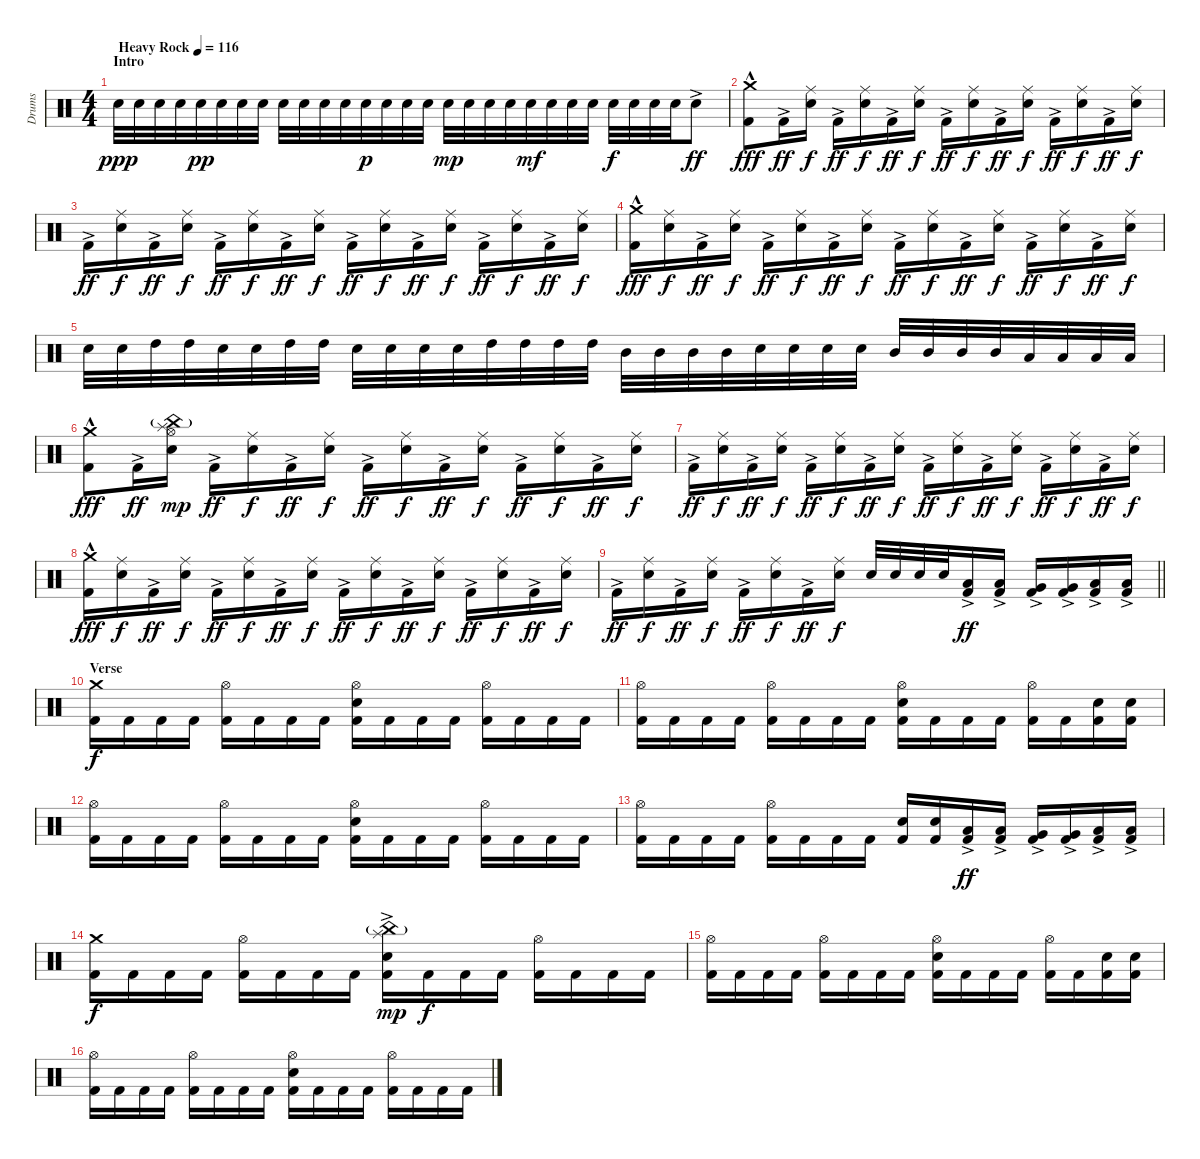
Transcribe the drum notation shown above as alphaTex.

\track ("Drums" "Drums") {instrument percussion}
\staff {score}
\articulation defaults
\ts (4 4)
\section ("" "Intro")
\tempo (116 "Heavy Rock")
\clef neutral
\ks c "Electric Snare (hit)".32{dy ppp} "Electric Snare (hit)".32 "Electric Snare (hit)".32 "Electric Snare (hit)".32 "Electric Snare (hit)".32{dy pp} "Electric Snare (hit)".32 "Electric Snare (hit)".32 "Electric Snare (hit)".32 "Electric Snare (hit)".32 "Electric Snare (hit)".32 "Electric Snare (hit)".32 "Electric Snare (hit)".32 "Electric Snare (hit)".32{dy p} "Electric Snare (hit)".32 "Electric Snare (hit)".32 "Electric Snare (hit)".32 "Electric Snare (hit)".32{dy mp} "Electric Snare (hit)".32 "Electric Snare (hit)".32 "Electric Snare (hit)".32 "Electric Snare (hit)".32{dy mf} "Electric Snare (hit)".32 "Electric Snare (hit)".32 "Electric Snare (hit)".32 "Electric Snare (hit)".32{dy f} "Electric Snare (hit)".32 "Electric Snare (hit)".32 "Electric Snare (hit)".32 "Electric Snare (hit)"{ac}.8{dy ff}
|
("Crash medium (hit)" "Kick (hit) 2"{hac}).8{dy fff} "Kick (hit) 2"{ac}.16{dy ff} ("Electric Snare (hit)" "Ride (middle)").16{dy f} "Kick (hit) 2"{ac}.16{dy ff} ("Electric Snare (hit)" "Ride (middle)").16{dy f} "Kick (hit) 2"{ac}.16{dy ff} ("Electric Snare (hit)" "Ride (middle)").16{dy f} "Kick (hit) 2"{ac}.16{dy ff} ("Electric Snare (hit)" "Ride (middle)").16{dy f} "Kick (hit) 2"{ac}.16{dy ff} ("Electric Snare (hit)" "Ride (middle)").16{dy f} "Kick (hit) 2"{ac}.16{dy ff} ("Electric Snare (hit)" "Ride (middle)").16{dy f} "Kick (hit) 2"{ac}.16{dy ff} ("Electric Snare (hit)" "Ride (middle)").16{dy f} |
"Kick (hit) 2"{ac}.16{dy ff} ("Electric Snare (hit)" "Ride (middle)").16{dy f} "Kick (hit) 2"{ac}.16{dy ff} ("Electric Snare (hit)" "Ride (middle)").16{dy f} "Kick (hit) 2"{ac}.16{dy ff} ("Electric Snare (hit)" "Ride (middle)").16{dy f} "Kick (hit) 2"{ac}.16{dy ff} ("Electric Snare (hit)" "Ride (middle)").16{dy f} "Kick (hit) 2"{ac}.16{dy ff} ("Electric Snare (hit)" "Ride (middle)").16{dy f} "Kick (hit) 2"{ac}.16{dy ff} ("Electric Snare (hit)" "Ride (middle)").16{dy f} "Kick (hit) 2"{ac}.16{dy ff} ("Electric Snare (hit)" "Ride (middle)").16{dy f} "Kick (hit) 2"{ac}.16{dy ff} ("Electric Snare (hit)" "Ride (middle)").16{dy f} |
("Crash medium (hit)" "Kick (hit) 2"{hac}).16{dy fff} ("Electric Snare (hit)" "Ride (middle)").16{dy f} "Kick (hit) 2"{ac}.16{dy ff} ("Electric Snare (hit)" "Ride (middle)").16{dy f} "Kick (hit) 2"{ac}.16{dy ff} ("Electric Snare (hit)" "Ride (middle)").16{dy f} "Kick (hit) 2"{ac}.16{dy ff} ("Electric Snare (hit)" "Ride (middle)").16{dy f} "Kick (hit) 2"{ac}.16{dy ff} ("Electric Snare (hit)" "Ride (middle)").16{dy f} "Kick (hit) 2"{ac}.16{dy ff} ("Electric Snare (hit)" "Ride (middle)").16{dy f} "Kick (hit) 2"{ac}.16{dy ff} ("Electric Snare (hit)" "Ride (middle)").16{dy f} "Kick (hit) 2"{ac}.16{dy ff} ("Electric Snare (hit)" "Ride (middle)").16{dy f} |
"Electric Snare (hit)".32 "Electric Snare (hit)".32 "High Tom (hit)".32 "High Tom (hit)".32 "Electric Snare (hit)".32 "Electric Snare (hit)".32 "High Tom (hit)".32 "High Tom (hit)".32 "Electric Snare (hit)".32 "Electric Snare (hit)".32 "Electric Snare (hit)".32 "Electric Snare (hit)".32 "High Tom (hit)".32 "High Tom (hit)".32 "High Tom (hit)".32 "High Tom (hit)".32 "Mid Tom (hit)".32 "Mid Tom (hit)".32 "Mid Tom (hit)".32 "Mid Tom (hit)".32 "Electric Snare (hit)".32 "Electric Snare (hit)".32 "Electric Snare (hit)".32 "Electric Snare (hit)".32 "Mid Tom (hit)".32 "Mid Tom (hit)".32 "Mid Tom (hit)".32 "Mid Tom (hit)".32 "Low Tom (hit)".32 "Low Tom (hit)".32 "Low Tom (hit)".32 "Low Tom (hit)".32 |
("Crash medium (hit)" "Kick (hit) 2"{hac}).8{dy fff} "Kick (hit) 2"{ac}.16{dy ff} ("China (hit)"{g} "Splash (hit)" "Electric Snare (hit)" "Hi-Hat (open)").16{dy mp} "Kick (hit) 2"{ac}.16{dy ff} ("Electric Snare (hit)" "Ride (middle)").16{dy f} "Kick (hit) 2"{ac}.16{dy ff} ("Electric Snare (hit)" "Ride (middle)").16{dy f} "Kick (hit) 2"{ac}.16{dy ff} ("Electric Snare (hit)" "Ride (middle)").16{dy f} "Kick (hit) 2"{ac}.16{dy ff} ("Electric Snare (hit)" "Ride (middle)").16{dy f} "Kick (hit) 2"{ac}.16{dy ff} ("Electric Snare (hit)" "Ride (middle)").16{dy f} "Kick (hit) 2"{ac}.16{dy ff} ("Electric Snare (hit)" "Ride (middle)").16{dy f} |
"Kick (hit) 2"{ac}.16{dy ff} ("Electric Snare (hit)" "Ride (middle)").16{dy f} "Kick (hit) 2"{ac}.16{dy ff} ("Electric Snare (hit)" "Ride (middle)").16{dy f} "Kick (hit) 2"{ac}.16{dy ff} ("Electric Snare (hit)" "Ride (middle)").16{dy f} "Kick (hit) 2"{ac}.16{dy ff} ("Electric Snare (hit)" "Ride (middle)").16{dy f} "Kick (hit) 2"{ac}.16{dy ff} ("Electric Snare (hit)" "Ride (middle)").16{dy f} "Kick (hit) 2"{ac}.16{dy ff} ("Electric Snare (hit)" "Ride (middle)").16{dy f} "Kick (hit) 2"{ac}.16{dy ff} ("Electric Snare (hit)" "Ride (middle)").16{dy f} "Kick (hit) 2"{ac}.16{dy ff} ("Electric Snare (hit)" "Ride (middle)").16{dy f} |
("Crash medium (hit)" "Kick (hit) 2"{hac}).16{dy fff} ("Electric Snare (hit)" "Ride (middle)").16{dy f} "Kick (hit) 2"{ac}.16{dy ff} ("Electric Snare (hit)" "Ride (middle)").16{dy f} "Kick (hit) 2"{ac}.16{dy ff} ("Electric Snare (hit)" "Ride (middle)").16{dy f} "Kick (hit) 2"{ac}.16{dy ff} ("Electric Snare (hit)" "Ride (middle)").16{dy f} "Kick (hit) 2"{ac}.16{dy ff} ("Electric Snare (hit)" "Ride (middle)").16{dy f} "Kick (hit) 2"{ac}.16{dy ff} ("Electric Snare (hit)" "Ride (middle)").16{dy f} "Kick (hit) 2"{ac}.16{dy ff} ("Electric Snare (hit)" "Ride (middle)").16{dy f} "Kick (hit) 2"{ac}.16{dy ff} ("Electric Snare (hit)" "Ride (middle)").16{dy f} |
\barLineRight lightlight "Kick (hit) 2"{ac}.16{dy ff}
("Electric Snare (hit)" "Ride (middle)").16{dy f} "Kick (hit) 2"{ac}.16{dy ff} ("Electric Snare (hit)" "Ride (middle)").16{dy f} "Kick (hit) 2"{ac}.16{dy ff} ("Electric Snare (hit)" "Ride (middle)").16{dy f} "Kick (hit) 2"{ac}.16{dy ff} ("Electric Snare (hit)" "Ride (middle)").16{dy f} "Electric Snare (hit)".32 "Electric Snare (hit)".32 "Electric Snare (hit)".32 "Electric Snare (hit)".32 ("Low Tom (hit)"{ac} "Kick (hit) 2").16{dy ff} ("Low Tom (hit)"{ac} "Kick (hit) 2").16 ("Very Low Tom (hit)"{ac} "Kick (hit) 2").16 ("Very Low Tom (hit)"{ac} "Kick (hit) 2").16 ("Low Floor Tom (hit)"{ac} "Kick (hit) 2").16 ("Low Floor Tom (hit)"{ac} "Kick (hit) 2").16 |
\section ("" "Verse")
("Crash medium (hit)" "Kick (hit) 2").16{dy f} "Kick (hit) 2".16 "Kick (hit) 2".16 "Kick (hit) 2".16 ("Hi-Hat (open)" "Kick (hit) 2").16 "Kick (hit) 2".16 "Kick (hit) 2".16 "Kick (hit) 2".16 ("Electric Snare (hit)" "Hi-Hat (open)" "Kick (hit) 2").16 "Kick (hit) 2".16 "Kick (hit) 2".16 "Kick (hit) 2".16 ("Hi-Hat (open)" "Kick (hit) 2").16 "Kick (hit) 2".16 "Kick (hit) 2".16 "Kick (hit) 2".16 |
("Hi-Hat (open)" "Kick (hit) 2").16 "Kick (hit) 2".16 "Kick (hit) 2".16 "Kick (hit) 2".16 ("Hi-Hat (open)" "Kick (hit) 2").16 "Kick (hit) 2".16 "Kick (hit) 2".16 "Kick (hit) 2".16 ("Electric Snare (hit)" "Hi-Hat (open)" "Kick (hit) 2").16 "Kick (hit) 2".16 "Kick (hit) 2".16 "Kick (hit) 2".16 ("Hi-Hat (open)" "Kick (hit) 2").16 "Kick (hit) 2".16 ("Electric Snare (hit)" "Kick (hit) 2").16 ("Electric Snare (hit)" "Kick (hit) 2").16 |
("Hi-Hat (open)" "Kick (hit) 2").16 "Kick (hit) 2".16 "Kick (hit) 2".16 "Kick (hit) 2".16 ("Hi-Hat (open)" "Kick (hit) 2").16 "Kick (hit) 2".16 "Kick (hit) 2".16 "Kick (hit) 2".16 ("Electric Snare (hit)" "Hi-Hat (open)" "Kick (hit) 2").16 "Kick (hit) 2".16 "Kick (hit) 2".16 "Kick (hit) 2".16 ("Hi-Hat (open)" "Kick (hit) 2").16 "Kick (hit) 2".16 "Kick (hit) 2".16 "Kick (hit) 2".16 |
("Hi-Hat (open)" "Kick (hit) 2").16 "Kick (hit) 2".16 "Kick (hit) 2".16 "Kick (hit) 2".16 ("Hi-Hat (open)" "Kick (hit) 2").16 "Kick (hit) 2".16 "Kick (hit) 2".16 "Kick (hit) 2".16 ("Electric Snare (hit)" "Kick (hit) 2").16 ("Electric Snare (hit)" "Kick (hit) 2").16 ("Low Tom (hit)"{ac} "Kick (hit) 2").16{dy ff} ("Low Tom (hit)"{ac} "Kick (hit) 2").16 ("Very Low Tom (hit)"{ac} "Kick (hit) 2").16 ("Very Low Tom (hit)"{ac} "Kick (hit) 2").16 ("Low Floor Tom (hit)"{ac} "Kick (hit) 2").16 ("Low Floor Tom (hit)"{ac} "Kick (hit) 2").16 |
("Crash medium (hit)" "Kick (hit) 2").16{dy f} "Kick (hit) 2".16 "Kick (hit) 2".16 "Kick (hit) 2".16 ("Hi-Hat (open)" "Kick (hit) 2").16 "Kick (hit) 2".16 "Kick (hit) 2".16 "Kick (hit) 2".16 ("Splash (hit)"{ac} "China (hit)"{g} "Electric Snare (hit)" "Kick (hit) 2").16{dy mp} "Kick (hit) 2".16{dy f} "Kick (hit) 2".16 "Kick (hit) 2".16 ("Hi-Hat (open)" "Kick (hit) 2").16 "Kick (hit) 2".16 "Kick (hit) 2".16 "Kick (hit) 2".16 |
("Hi-Hat (open)" "Kick (hit) 2").16 "Kick (hit) 2".16 "Kick (hit) 2".16 "Kick (hit) 2".16 ("Hi-Hat (open)" "Kick (hit) 2").16 "Kick (hit) 2".16 "Kick (hit) 2".16 "Kick (hit) 2".16 ("Electric Snare (hit)" "Hi-Hat (open)" "Kick (hit) 2").16 "Kick (hit) 2".16 "Kick (hit) 2".16 "Kick (hit) 2".16 ("Hi-Hat (open)" "Kick (hit) 2").16 "Kick (hit) 2".16 ("Electric Snare (hit)" "Kick (hit) 2").16 ("Electric Snare (hit)" "Kick (hit) 2").16 |
("Hi-Hat (open)" "Kick (hit) 2").16 "Kick (hit) 2".16 "Kick (hit) 2".16 "Kick (hit) 2".16 ("Hi-Hat (open)" "Kick (hit) 2").16 "Kick (hit) 2".16 "Kick (hit) 2".16 "Kick (hit) 2".16 ("Electric Snare (hit)" "Hi-Hat (open)" "Kick (hit) 2").16 "Kick (hit) 2".16 "Kick (hit) 2".16 "Kick (hit) 2".16 ("Hi-Hat (open)" "Kick (hit) 2").16 "Kick (hit) 2".16 "Kick (hit) 2".16 "Kick (hit) 2".16
